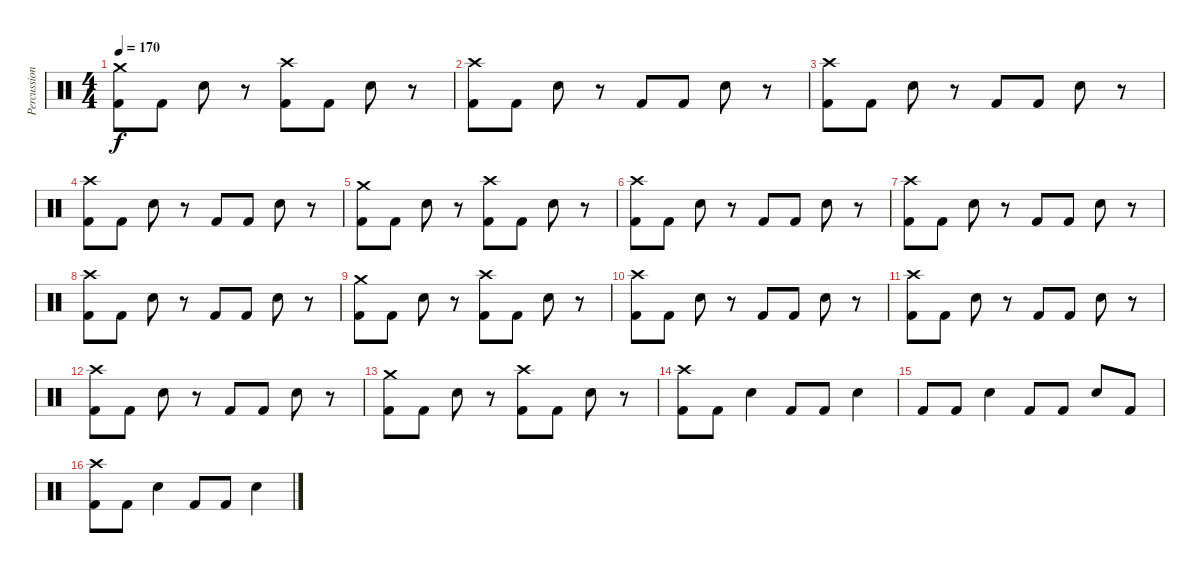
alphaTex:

\track ("Percussion" "Percussion") {instrument percussion}
\staff {score}
\articulation defaults
\ts (4 4)
\tempo 170
\clef neutral
\ks c
("Crash medium (hit)" "Kick (hit) 2").8{dy f} "Kick (hit) 2".8 "Electric Snare (hit)".8 r.8 ("Crash high (hit)" "Kick (hit) 2").8 "Kick (hit) 2".8 "Electric Snare (hit)".8 r.8 |
("Crash high (hit)" "Kick (hit) 2").8 "Kick (hit) 2".8 "Electric Snare (hit)".8 r.8 "Kick (hit) 2".8 "Kick (hit) 2".8 "Electric Snare (hit)".8 r.8 |
("Crash high (hit)" "Kick (hit) 2").8 "Kick (hit) 2".8 "Electric Snare (hit)".8 r.8 "Kick (hit) 2".8 "Kick (hit) 2".8 "Electric Snare (hit)".8 r.8 |
("Crash high (hit)" "Kick (hit) 2").8 "Kick (hit) 2".8 "Electric Snare (hit)".8 r.8 "Kick (hit) 2".8 "Kick (hit) 2".8 "Electric Snare (hit)".8 r.8 |
("Crash medium (hit)" "Kick (hit) 2").8 "Kick (hit) 2".8 "Electric Snare (hit)".8 r.8 ("Crash high (hit)" "Kick (hit) 2").8 "Kick (hit) 2".8 "Electric Snare (hit)".8 r.8 |
("Crash high (hit)" "Kick (hit) 2").8 "Kick (hit) 2".8 "Electric Snare (hit)".8 r.8 "Kick (hit) 2".8 "Kick (hit) 2".8 "Electric Snare (hit)".8 r.8 |
("Crash high (hit)" "Kick (hit) 2").8 "Kick (hit) 2".8 "Electric Snare (hit)".8 r.8 "Kick (hit) 2".8 "Kick (hit) 2".8 "Electric Snare (hit)".8 r.8 |
("Crash high (hit)" "Kick (hit) 2").8 "Kick (hit) 2".8 "Electric Snare (hit)".8 r.8 "Kick (hit) 2".8 "Kick (hit) 2".8 "Electric Snare (hit)".8 r.8 |
("Crash medium (hit)" "Kick (hit) 2").8 "Kick (hit) 2".8 "Electric Snare (hit)".8 r.8 ("Crash high (hit)" "Kick (hit) 2").8 "Kick (hit) 2".8 "Electric Snare (hit)".8 r.8 |
("Crash high (hit)" "Kick (hit) 2").8 "Kick (hit) 2".8 "Electric Snare (hit)".8 r.8 "Kick (hit) 2".8 "Kick (hit) 2".8 "Electric Snare (hit)".8 r.8 |
("Crash high (hit)" "Kick (hit) 2").8 "Kick (hit) 2".8 "Electric Snare (hit)".8 r.8 "Kick (hit) 2".8 "Kick (hit) 2".8 "Electric Snare (hit)".8 r.8 |
("Crash high (hit)" "Kick (hit) 2").8 "Kick (hit) 2".8 "Electric Snare (hit)".8 r.8 "Kick (hit) 2".8 "Kick (hit) 2".8 "Electric Snare (hit)".8 r.8 |
("Crash medium (hit)" "Kick (hit) 2").8 "Kick (hit) 2".8 "Electric Snare (hit)".8 r.8 ("Crash high (hit)" "Kick (hit) 2").8 "Kick (hit) 2".8 "Electric Snare (hit)".8 r.8 |
("Crash high (hit)" "Kick (hit) 2").8 "Kick (hit) 2".8 "Electric Snare (hit)".4 "Kick (hit) 2".8 "Kick (hit) 2".8 "Electric Snare (hit)".4 |
"Kick (hit) 2".8 "Kick (hit) 2".8 "Electric Snare (hit)".4 "Kick (hit) 2".8 "Kick (hit) 2".8 "Electric Snare (hit)".8 "Kick (hit) 2".8 |
("Crash high (hit)" "Kick (hit) 2").8 "Kick (hit) 2".8 "Electric Snare (hit)".4 "Kick (hit) 2".8 "Kick (hit) 2".8 "Electric Snare (hit)".4
